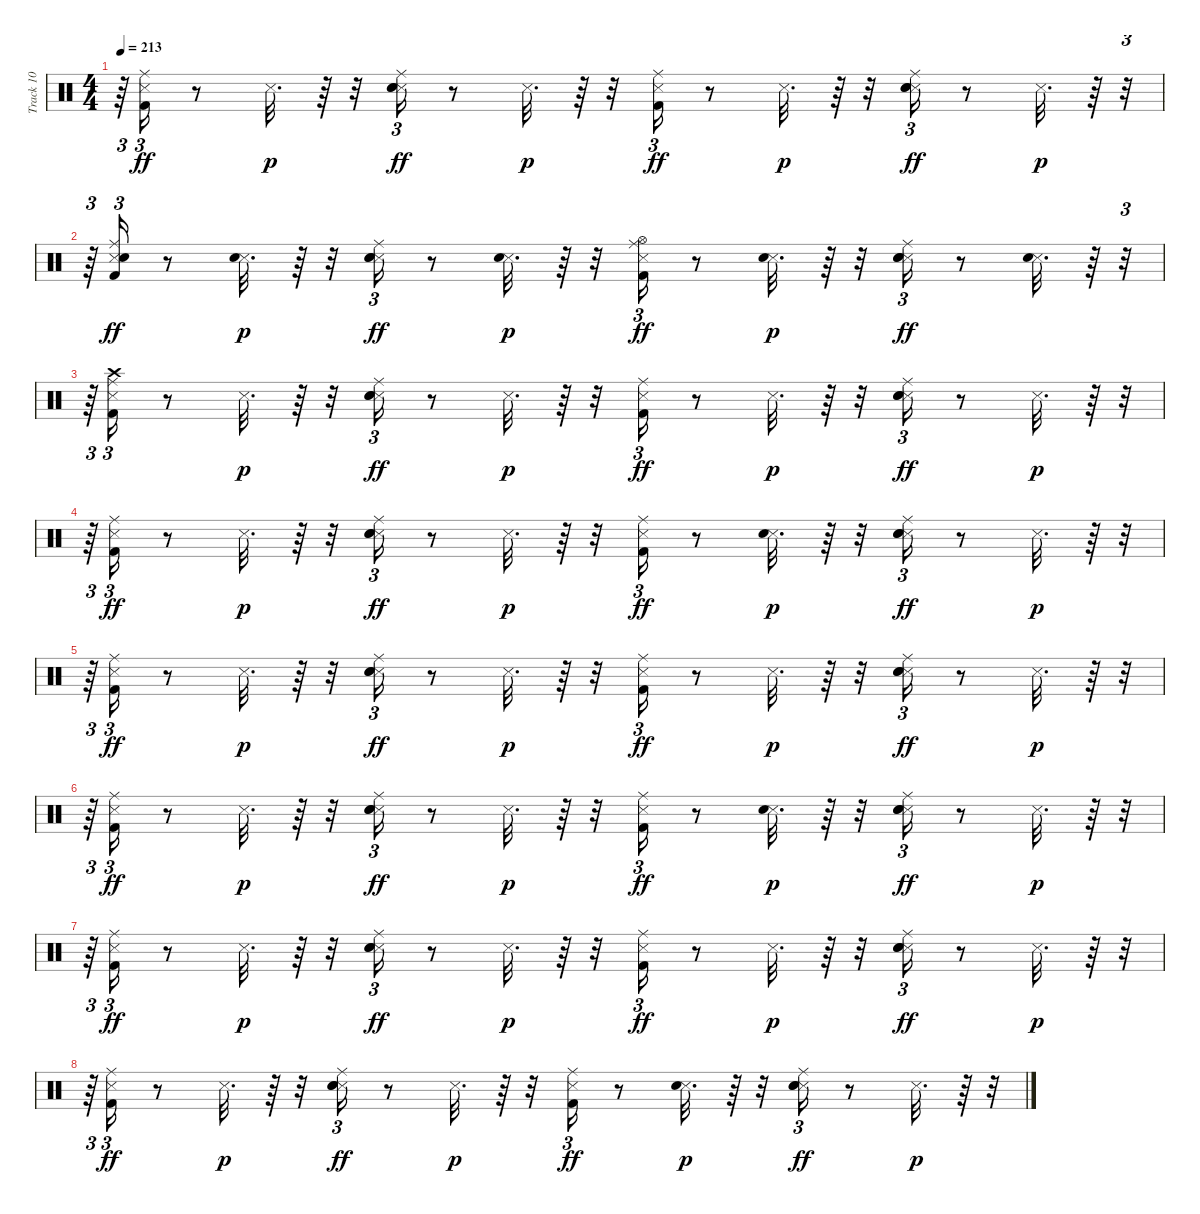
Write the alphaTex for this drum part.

\track ("Track 10" "Track 10") {instrument percussion}
\staff {score}
\articulation defaults
\ts (4 4)
\tempo 213
\clef neutral
\ks c
r.64{tu (3 2) dy p} ("Kick (hit) 2" "Snare (side stick) 3" "Ride (middle)").16{tu (3 2) dy ff} r.8 "Snare (side stick) 3".32{d dy p} r.64 r.32 ("Snare (side stick) 3" "Hand Clap (hit)" "Electric Snare (hit)" "Ride (middle)").16{tu (3 2) dy ff} r.8 "Snare (side stick) 3".32{d dy p} r.64 r.32 ("Kick (hit) 2" "Snare (side stick) 3" "Ride (middle)").16{tu (3 2) dy ff} r.8 "Snare (side stick) 3".32{d dy p} r.64 r.32 ("Snare (side stick) 3" "Hand Clap (hit)" "Electric Snare (hit)" "Ride (middle)").16{tu (3 2) dy ff} r.8 "Snare (side stick) 3".32{d dy p} r.64 r.32{tu (3 2)} |
r.64{tu (3 2)} ("Kick (hit) 2" "Snare (side stick) 3" "Electric Snare (hit)" "Ride (middle)").16{tu (3 2) dy ff} r.8 ("Snare (side stick) 3" "Electric Snare (hit)").32{d dy p} r.64 r.32 ("Snare (side stick) 3" "Hand Clap (hit)" "Electric Snare (hit)" "Ride (middle)").16{tu (3 2) dy ff} r.8 ("Snare (side stick) 3" "Electric Snare (hit)").32{d dy p} r.64 r.32 ("Kick (hit) 2" "Snare (side stick) 3" "Hi-Hat (open)" "Ride (middle)").16{tu (3 2) dy ff} r.8 ("Snare (side stick) 3" "Electric Snare (hit)").32{d dy p} r.64 r.32 ("Snare (side stick) 3" "Hand Clap (hit)" "Electric Snare (hit)" "Ride (middle)").16{tu (3 2) dy ff} r.8 ("Snare (side stick) 3" "Electric Snare (hit)").32{d} r.64 r.32{tu (3 2)} |
r.64{tu (3 2)} ("Kick (hit) 2" "Snare (side stick) 3" "Crash high (hit)" "Ride (middle)").16{tu (3 2)} r.8 "Snare (side stick) 3".32{d dy p} r.64 r.32 ("Snare (side stick) 3" "Hand Clap (hit)" "Electric Snare (hit)" "Ride (middle)").16{tu (3 2) dy ff} r.8 "Snare (side stick) 3".32{d dy p} r.64 r.32 ("Kick (hit) 2" "Snare (side stick) 3" "Ride (middle)").16{tu (3 2) dy ff} r.8 "Snare (side stick) 3".32{d dy p} r.64 r.32 ("Snare (side stick) 3" "Hand Clap (hit)" "Electric Snare (hit)" "Ride (middle)").16{tu (3 2) dy ff} r.8 "Snare (side stick) 3".32{d dy p} r.64 r.32{tu (3 2)} |
r.64{tu (3 2)} ("Kick (hit) 2" "Snare (side stick) 3" "Ride (middle)").16{tu (3 2) dy ff} r.8 "Snare (side stick) 3".32{d dy p} r.64 r.32 ("Snare (side stick) 3" "Hand Clap (hit)" "Electric Snare (hit)" "Ride (middle)").16{tu (3 2) dy ff} r.8 "Snare (side stick) 3".32{d dy p} r.64 r.32 ("Kick (hit) 2" "Snare (side stick) 3" "Ride (middle)").16{tu (3 2) dy ff} r.8 ("Snare (side stick) 3" "Electric Snare (hit)").32{d dy p} r.64 r.32 ("Snare (side stick) 3" "Hand Clap (hit)" "Electric Snare (hit)" "Ride (middle)").16{tu (3 2) dy ff} r.8 "Snare (side stick) 3".32{d dy p} r.64 r.32{tu (3 2)} |
r.64{tu (3 2)} ("Kick (hit) 2" "Snare (side stick) 3" "Ride (middle)").16{tu (3 2) dy ff} r.8 "Snare (side stick) 3".32{d dy p} r.64 r.32 ("Snare (side stick) 3" "Hand Clap (hit)" "Electric Snare (hit)" "Ride (middle)").16{tu (3 2) dy ff} r.8 "Snare (side stick) 3".32{d dy p} r.64 r.32 ("Kick (hit) 2" "Snare (side stick) 3" "Ride (middle)").16{tu (3 2) dy ff} r.8 "Snare (side stick) 3".32{d dy p} r.64 r.32 ("Snare (side stick) 3" "Hand Clap (hit)" "Electric Snare (hit)" "Ride (middle)").16{tu (3 2) dy ff} r.8 "Snare (side stick) 3".32{d dy p} r.64 r.32{tu (3 2)} |
r.64{tu (3 2)} ("Kick (hit) 2" "Snare (side stick) 3" "Ride (middle)").16{tu (3 2) dy ff} r.8 "Snare (side stick) 3".32{d dy p} r.64 r.32 ("Snare (side stick) 3" "Hand Clap (hit)" "Electric Snare (hit)" "Ride (middle)").16{tu (3 2) dy ff} r.8 "Snare (side stick) 3".32{d dy p} r.64 r.32 ("Kick (hit) 2" "Snare (side stick) 3" "Ride (middle)").16{tu (3 2) dy ff} r.8 ("Snare (side stick) 3" "Electric Snare (hit)").32{d dy p} r.64 r.32 ("Snare (side stick) 3" "Hand Clap (hit)" "Electric Snare (hit)" "Ride (middle)").16{tu (3 2) dy ff} r.8 "Snare (side stick) 3".32{d dy p} r.64 r.32{tu (3 2)} |
r.64{tu (3 2)} ("Kick (hit) 2" "Snare (side stick) 3" "Ride (middle)").16{tu (3 2) dy ff} r.8 "Snare (side stick) 3".32{d dy p} r.64 r.32 ("Snare (side stick) 3" "Hand Clap (hit)" "Electric Snare (hit)" "Ride (middle)").16{tu (3 2) dy ff} r.8 "Snare (side stick) 3".32{d dy p} r.64 r.32 ("Kick (hit) 2" "Snare (side stick) 3" "Ride (middle)").16{tu (3 2) dy ff} r.8 "Snare (side stick) 3".32{d dy p} r.64 r.32 ("Snare (side stick) 3" "Hand Clap (hit)" "Electric Snare (hit)" "Ride (middle)").16{tu (3 2) dy ff} r.8 "Snare (side stick) 3".32{d dy p} r.64 r.32{tu (3 2)} |
r.64{tu (3 2)} ("Kick (hit) 2" "Snare (side stick) 3" "Ride (middle)").16{tu (3 2) dy ff} r.8 "Snare (side stick) 3".32{d dy p} r.64 r.32 ("Snare (side stick) 3" "Hand Clap (hit)" "Electric Snare (hit)" "Ride (middle)").16{tu (3 2) dy ff} r.8 "Snare (side stick) 3".32{d dy p} r.64 r.32 ("Kick (hit) 2" "Snare (side stick) 3" "Ride (middle)").16{tu (3 2) dy ff} r.8 ("Snare (side stick) 3" "Electric Snare (hit)").32{d dy p} r.64 r.32 ("Snare (side stick) 3" "Hand Clap (hit)" "Electric Snare (hit)" "Ride (middle)").16{tu (3 2) dy ff} r.8 "Snare (side stick) 3".32{d dy p} r.64 r.32{tu (3 2)}
